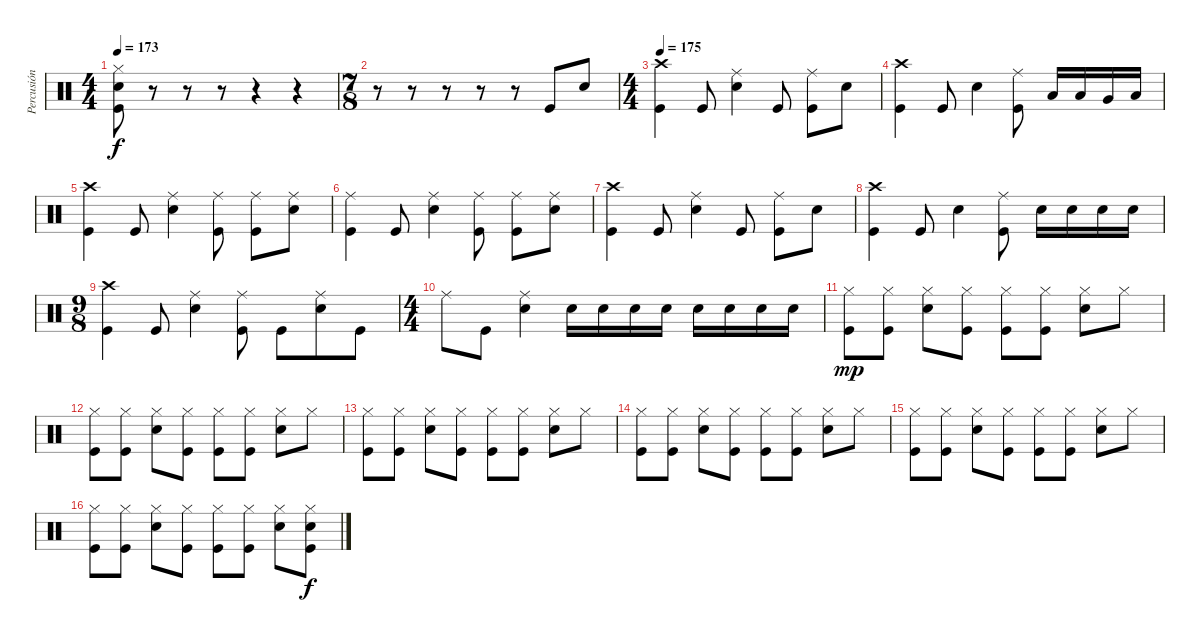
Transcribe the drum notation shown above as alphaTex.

\track ("Percusión" "Percusión") {instrument percussion}
\staff {score}
\articulation defaults
\ts (4 4)
\tempo 173
\clef neutral
\ks c
("Snare (hit) 2" "Kick (hit)" "Hi-Hat (closed)").8{dy f} r.8 r.8 r.8 r.4 r.4 |
\ts (7 8)
r.8 r.8 r.8 r.8 r.8 "Kick (hit)".8 "Snare (hit) 2".8 |
\ts (4 4)
\tempo 175
("Kick (hit)" "Crash high (hit)").4 "Kick (hit)".8 ("Snare (hit) 2" "Ride (middle)").4 "Kick (hit)".8 ("Kick (hit)" "Ride (middle)").8 "Snare (hit) 2".8 |
("Kick (hit)" "Crash high (hit)").4 "Kick (hit)".8 "Snare (hit) 2".4 ("Kick (hit)" "Ride (middle)").8 "Low Tom (hit)".16 "Low Tom (hit)".16 "Very Low Tom (hit)".16 "Low Floor Tom (hit)".16 |
("Kick (hit)" "Crash high (hit)").4 "Kick (hit)".8 ("Snare (hit) 2" "Ride (middle)").4 ("Kick (hit)" "Ride (middle)").8 ("Kick (hit)" "Ride (middle)").8 ("Snare (hit) 2" "Ride (middle)").8 |
("Kick (hit)" "Ride (middle)").4 "Kick (hit)".8 ("Snare (hit) 2" "Ride (middle)").4 ("Kick (hit)" "Ride (middle)").8 ("Kick (hit)" "Ride (middle)").8 ("Snare (hit) 2" "Ride (middle)").8 |
("Kick (hit)" "Crash high (hit)").4 "Kick (hit)".8 ("Snare (hit) 2" "Ride (middle)").4 "Kick (hit)".8 ("Kick (hit)" "Ride (middle)").8 "Snare (hit) 2".8 |
("Kick (hit)" "Crash high (hit)").4 "Kick (hit)".8 "Snare (hit) 2".4 ("Kick (hit)" "Ride (middle)").8 "Snare (hit) 2".16 "Snare (hit) 2".16 "Snare (hit) 2".16 "Snare (hit) 2".16 |
\ts (9 8)
("Kick (hit)" "Crash high (hit)").4 "Kick (hit)".8 ("Snare (hit) 2" "Ride (middle)").4 ("Kick (hit)" "Ride (middle)").8 "Kick (hit)".8 ("Snare (hit) 2" "Ride (middle)").8 "Kick (hit)".8 |
\ts (4 4)
"Ride (middle)".8 "Kick (hit)".8 ("Snare (hit) 2" "Ride (middle)").4 "Snare (hit) 2".16 "Snare (hit) 2".16 "Snare (hit) 2".16 "Snare (hit) 2".16 "Snare (hit) 2".16 "Snare (hit) 2".16 "Snare (hit) 2".16 "Snare (hit) 2".16 |
("Kick (hit)" "Hi-Hat (closed)").8{dy mp} ("Kick (hit)" "Hi-Hat (closed)").8 ("Snare (hit) 2" "Hi-Hat (closed)").8 ("Kick (hit)" "Hi-Hat (closed)").8 ("Kick (hit)" "Hi-Hat (closed)").8 ("Kick (hit)" "Hi-Hat (closed)").8 ("Snare (hit) 2" "Hi-Hat (closed)").8 "Hi-Hat (closed)".8 |
("Kick (hit)" "Hi-Hat (closed)").8 ("Kick (hit)" "Hi-Hat (closed)").8 ("Snare (hit) 2" "Hi-Hat (closed)").8 ("Kick (hit)" "Hi-Hat (closed)").8 ("Kick (hit)" "Hi-Hat (closed)").8 ("Kick (hit)" "Hi-Hat (closed)").8 ("Snare (hit) 2" "Hi-Hat (closed)").8 "Hi-Hat (closed)".8 |
("Kick (hit)" "Hi-Hat (closed)").8 ("Kick (hit)" "Hi-Hat (closed)").8 ("Snare (hit) 2" "Hi-Hat (closed)").8 ("Kick (hit)" "Hi-Hat (closed)").8 ("Kick (hit)" "Hi-Hat (closed)").8 ("Kick (hit)" "Hi-Hat (closed)").8 ("Snare (hit) 2" "Hi-Hat (closed)").8 "Hi-Hat (closed)".8 |
("Kick (hit)" "Hi-Hat (closed)").8 ("Kick (hit)" "Hi-Hat (closed)").8 ("Snare (hit) 2" "Hi-Hat (closed)").8 ("Kick (hit)" "Hi-Hat (closed)").8 ("Kick (hit)" "Hi-Hat (closed)").8 ("Kick (hit)" "Hi-Hat (closed)").8 ("Snare (hit) 2" "Hi-Hat (closed)").8 "Hi-Hat (closed)".8 |
("Kick (hit)" "Hi-Hat (closed)").8 ("Kick (hit)" "Hi-Hat (closed)").8 ("Snare (hit) 2" "Hi-Hat (closed)").8 ("Kick (hit)" "Hi-Hat (closed)").8 ("Kick (hit)" "Hi-Hat (closed)").8 ("Kick (hit)" "Hi-Hat (closed)").8 ("Snare (hit) 2" "Hi-Hat (closed)").8 "Hi-Hat (closed)".8 |
("Kick (hit)" "Hi-Hat (closed)").8 ("Kick (hit)" "Hi-Hat (closed)").8 ("Snare (hit) 2" "Hi-Hat (closed)").8 ("Kick (hit)" "Hi-Hat (closed)").8 ("Kick (hit)" "Hi-Hat (closed)").8 ("Kick (hit)" "Hi-Hat (closed)").8 ("Snare (hit) 2" "Hi-Hat (closed)").8 ("Snare (hit) 2" "Kick (hit)" "Hi-Hat (closed)").8{dy f}
